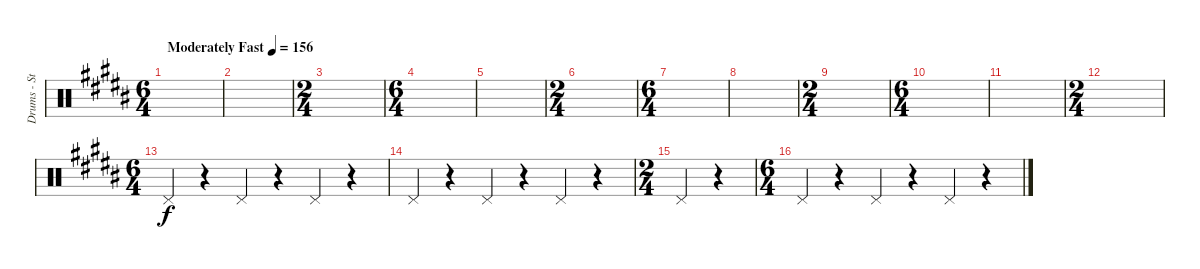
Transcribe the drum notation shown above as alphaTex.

\track ("Drums - Steve Judd" "Drums - St") {instrument percussion}
\staff {score}
\articulation defaults
\ts (6 4)
\tempo (156 "Moderately Fast")
\clef neutral
\ks b
|
|
\ts (2 4)
|
\ts (6 4)
|
|
\ts (2 4)
|
\ts (6 4)
|
|
\ts (2 4)
|
\ts (6 4)
|
|
\ts (2 4)
|
\ts (6 4)
"Pedal Hi-Hat (hit)".4 r.4 "Pedal Hi-Hat (hit)".4 r.4 "Pedal Hi-Hat (hit)".4 r.4 |
"Pedal Hi-Hat (hit)".4 r.4 "Pedal Hi-Hat (hit)".4 r.4 "Pedal Hi-Hat (hit)".4 r.4 |
\ts (2 4)
"Pedal Hi-Hat (hit)".4 r.4 |
\ts (6 4)
"Pedal Hi-Hat (hit)".4 r.4 "Pedal Hi-Hat (hit)".4 r.4 "Pedal Hi-Hat (hit)".4 r.4
